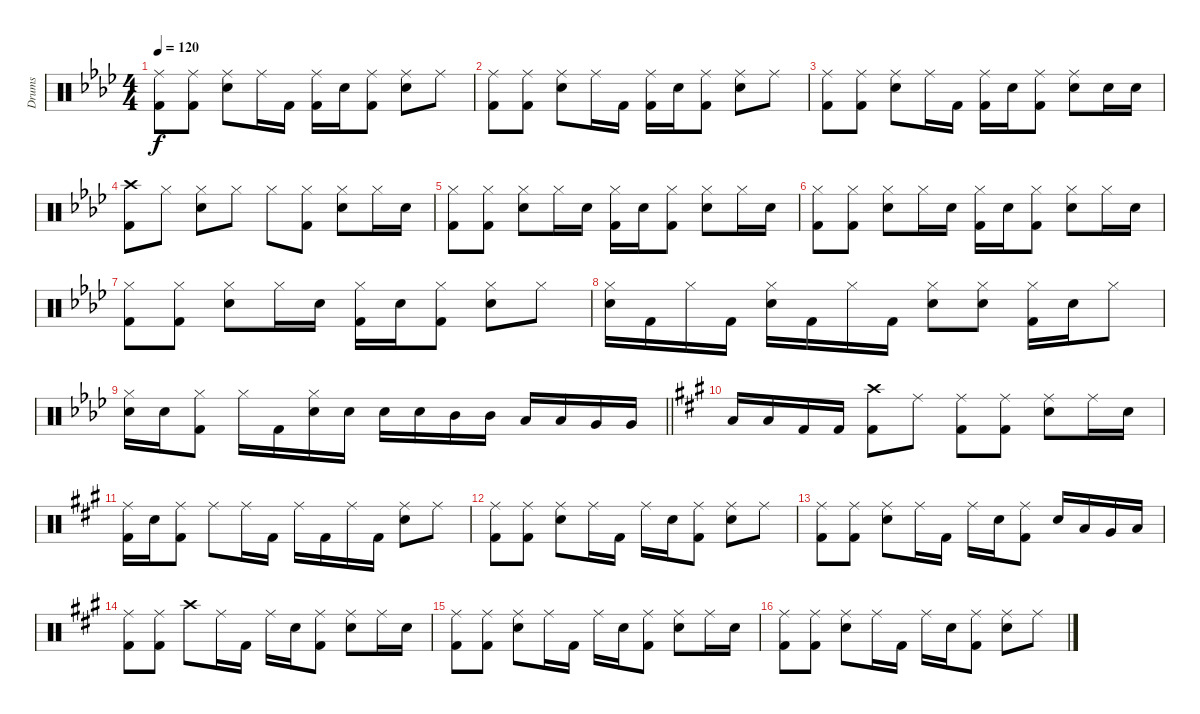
\track ("Drums" "Drums") {instrument percussion}
\staff {score}
\articulation defaults
\ts (4 4)
\tempo 120
\clef neutral
\ks ab
("Ride (middle)" "Kick (hit) 2").8{dy f} ("Ride (middle)" "Kick (hit) 2").8 ("Ride (middle)" "Electric Snare (hit)").8 "Ride (middle)".16 "Kick (hit) 2".16 ("Ride (middle)" "Kick (hit) 2").16 "Electric Snare (hit)".16 ("Ride (middle)" "Kick (hit) 2").8 ("Ride (middle)" "Electric Snare (hit)").8 "Ride (middle)".8 |
("Ride (middle)" "Kick (hit) 2").8 ("Ride (middle)" "Kick (hit) 2").8 ("Ride (middle)" "Electric Snare (hit)").8 "Ride (middle)".16 "Kick (hit) 2".16 ("Ride (middle)" "Kick (hit) 2").16 "Electric Snare (hit)".16 ("Ride (middle)" "Kick (hit) 2").8 ("Ride (middle)" "Electric Snare (hit)").8 "Ride (middle)".8 |
("Ride (middle)" "Kick (hit) 2").8 ("Ride (middle)" "Kick (hit) 2").8 ("Ride (middle)" "Electric Snare (hit)").8 "Ride (middle)".16 "Kick (hit) 2".16 ("Ride (middle)" "Kick (hit) 2").16 "Electric Snare (hit)".16 ("Ride (middle)" "Kick (hit) 2").8 ("Ride (middle)" "Electric Snare (hit)").8 "Electric Snare (hit)".16 "Electric Snare (hit)".16 |
("Crash high (hit)" "Kick (hit) 2").8 "Hi-Hat (closed)".8 ("Hi-Hat (closed)" "Electric Snare (hit)").8 "Hi-Hat (closed)".8 "Hi-Hat (closed)".8 ("Hi-Hat (closed)" "Kick (hit) 2").8 ("Hi-Hat (closed)" "Electric Snare (hit)").8 "Hi-Hat (closed)".16 "Electric Snare (hit)".16 |
("Hi-Hat (closed)" "Kick (hit) 2").8 ("Hi-Hat (closed)" "Kick (hit) 2").8 ("Hi-Hat (closed)" "Electric Snare (hit)").8 "Hi-Hat (closed)".16 "Electric Snare (hit)".16 ("Hi-Hat (closed)" "Kick (hit) 2").16 "Electric Snare (hit)".16 ("Hi-Hat (closed)" "Kick (hit) 2").8 ("Hi-Hat (closed)" "Electric Snare (hit)").8 "Hi-Hat (closed)".16 "Electric Snare (hit)".16 |
("Hi-Hat (closed)" "Kick (hit) 2").8 ("Hi-Hat (closed)" "Kick (hit) 2").8 ("Hi-Hat (closed)" "Electric Snare (hit)").8 "Hi-Hat (closed)".16 "Electric Snare (hit)".16 ("Hi-Hat (closed)" "Kick (hit) 2").16 "Electric Snare (hit)".16 ("Hi-Hat (closed)" "Kick (hit) 2").8 ("Hi-Hat (closed)" "Electric Snare (hit)").8 "Hi-Hat (closed)".16 "Electric Snare (hit)".16 |
("Hi-Hat (closed)" "Kick (hit) 2").8 ("Hi-Hat (closed)" "Kick (hit) 2").8 ("Hi-Hat (closed)" "Electric Snare (hit)").8 "Hi-Hat (closed)".16 "Electric Snare (hit)".16 ("Hi-Hat (closed)" "Kick (hit) 2").16 "Electric Snare (hit)".16 ("Hi-Hat (closed)" "Kick (hit) 2").8 ("Hi-Hat (closed)" "Electric Snare (hit)").8 "Hi-Hat (closed)".8 |
("Hi-Hat (closed)" "Electric Snare (hit)").16 "Kick (hit) 2".16 "Hi-Hat (closed)".16 "Kick (hit) 2".16 ("Hi-Hat (closed)" "Electric Snare (hit)").16 "Kick (hit) 2".16 "Hi-Hat (closed)".16 "Kick (hit) 2".16 ("Hi-Hat (closed)" "Electric Snare (hit)").8 ("Hi-Hat (closed)" "Electric Snare (hit)").8 ("Hi-Hat (closed)" "Kick (hit) 2").16 "Electric Snare (hit)".16 "Hi-Hat (closed)".8 |
\barLineRight lightlight
("Hi-Hat (closed)" "Electric Snare (hit)").16 "Electric Snare (hit)".16 ("Hi-Hat (closed)" "Kick (hit) 2").8 "Hi-Hat (closed)".16 "Kick (hit) 2".16 ("Hi-Hat (closed)" "Electric Snare (hit)").16 "Electric Snare (hit)".16 "Electric Snare (hit)".16 "Electric Snare (hit)".16 "Mid Tom (hit)".16 "Mid Tom (hit)".16 "Low Tom (hit)".16 "Low Tom (hit)".16 "Very Low Tom (hit)".16 "Very Low Tom (hit)".16 |
\ks a "Low Floor Tom (hit)".16 "Low Floor Tom (hit)".16 "Kick (hit) 2".16 "Kick (hit) 2".16
("Crash high (hit)" "Kick (hit) 2").8 "Ride (middle)".8 ("Ride (middle)" "Kick (hit) 2").8 ("Ride (middle)" "Kick (hit) 2").8 ("Ride (middle)" "Electric Snare (hit)").8 "Ride (middle)".16 "Electric Snare (hit)".16 |
("Ride (middle)" "Kick (hit) 2").16 "Electric Snare (hit)".16 ("Ride (middle)" "Kick (hit) 2").8 "Ride (middle)".8 "Ride (middle)".16 "Kick (hit) 2".16 "Ride (middle)".16 "Kick (hit) 2".16 "Ride (middle)".16 "Kick (hit) 2".16 ("Ride (middle)" "Electric Snare (hit)").8 "Ride (middle)".8 |
("Ride (middle)" "Kick (hit) 2").8 ("Ride (middle)" "Kick (hit) 2").8 ("Ride (middle)" "Electric Snare (hit)").8 "Ride (middle)".16 "Kick (hit) 2".16 "Ride (middle)".16 "Electric Snare (hit)".16 ("Ride (middle)" "Kick (hit) 2").8 ("Ride (middle)" "Electric Snare (hit)").8 "Ride (middle)".8 |
("Ride (middle)" "Kick (hit) 2").8 ("Ride (middle)" "Kick (hit) 2").8 ("Ride (middle)" "Electric Snare (hit)").8 "Ride (middle)".16 "Kick (hit) 2".16 "Ride (middle)".16 "Electric Snare (hit)".16 ("Ride (middle)" "Kick (hit) 2").8 "Electric Snare (hit)".16 "Low Tom (hit)".16 "Very Low Tom (hit)".16 "Low Floor Tom (hit)".16 |
("Ride (middle)" "Kick (hit) 2").8 ("Ride (middle)" "Kick (hit) 2").8 "Crash high (hit)".8 "Ride (middle)".16 "Kick (hit) 2".16 "Ride (middle)".16 "Electric Snare (hit)".16 ("Ride (middle)" "Kick (hit) 2").8 ("Ride (middle)" "Electric Snare (hit)").8 "Ride (middle)".16 "Electric Snare (hit)".16 |
("Ride (middle)" "Kick (hit) 2").8 ("Ride (middle)" "Kick (hit) 2").8 ("Ride (middle)" "Electric Snare (hit)").8 "Ride (middle)".16 "Kick (hit) 2".16 "Ride (middle)".16 "Electric Snare (hit)".16 ("Ride (middle)" "Kick (hit) 2").8 ("Ride (middle)" "Electric Snare (hit)").8 "Ride (middle)".16 "Electric Snare (hit)".16 |
("Ride (middle)" "Kick (hit) 2").8 ("Ride (middle)" "Kick (hit) 2").8 ("Ride (middle)" "Electric Snare (hit)").8 "Ride (middle)".16 "Kick (hit) 2".16 "Ride (middle)".16 "Electric Snare (hit)".16 ("Ride (middle)" "Kick (hit) 2").8 ("Ride (middle)" "Electric Snare (hit)").8 "Ride (middle)".8
